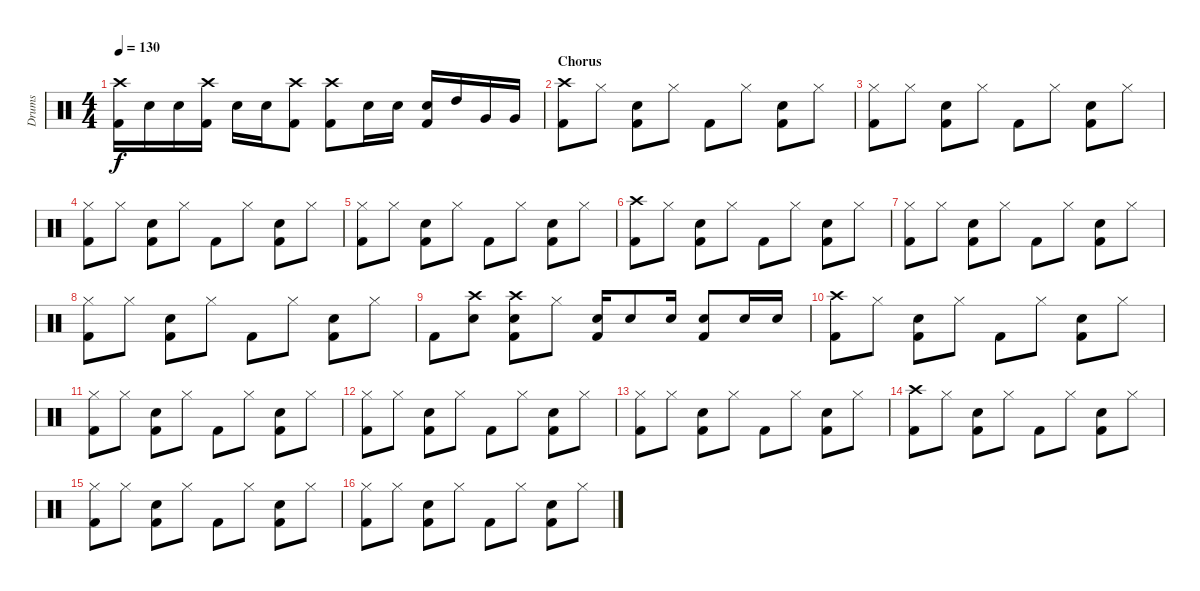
\track ("Drums" "Drums") {instrument percussion}
\staff {score}
\articulation defaults
\ts (4 4)
\tempo 130
\clef neutral
\ks c
("Crash high (hit)" "Kick (hit) 2").16{dy f} "Snare (hit) 2".16 "Snare (hit) 2".16 ("Crash high (hit)" "Kick (hit) 2").16 "Snare (hit) 2".16 "Snare (hit) 2".16 ("Crash high (hit)" "Kick (hit) 2").8 ("Crash high (hit)" "Kick (hit) 2").8 "Snare (hit) 2".16 "Snare (hit) 2".16 ("Snare (hit) 2" "Kick (hit) 2").16 "High Tom (hit)".16 "Very Low Tom (hit)".16 "Very Low Tom (hit)".16 |
\section ("" "Chorus")
("Crash high (hit)" "Kick (hit) 2").8 "Hi-Hat (closed)".8 ("Snare (hit) 2" "Kick (hit) 2").8 "Hi-Hat (closed)".8 "Kick (hit) 2".8 "Hi-Hat (closed)".8 ("Snare (hit) 2" "Kick (hit) 2").8 "Hi-Hat (closed)".8 |
("Hi-Hat (closed)" "Kick (hit) 2").8 "Hi-Hat (closed)".8 ("Snare (hit) 2" "Kick (hit) 2").8 "Hi-Hat (closed)".8 "Kick (hit) 2".8 "Hi-Hat (closed)".8 ("Snare (hit) 2" "Kick (hit) 2").8 "Hi-Hat (closed)".8 |
("Hi-Hat (closed)" "Kick (hit) 2").8 "Hi-Hat (closed)".8 ("Snare (hit) 2" "Kick (hit) 2").8 "Hi-Hat (closed)".8 "Kick (hit) 2".8 "Hi-Hat (closed)".8 ("Snare (hit) 2" "Kick (hit) 2").8 "Hi-Hat (closed)".8 |
("Hi-Hat (closed)" "Kick (hit) 2").8 "Hi-Hat (closed)".8 ("Snare (hit) 2" "Kick (hit) 2").8 "Hi-Hat (closed)".8 "Kick (hit) 2".8 "Hi-Hat (closed)".8 ("Snare (hit) 2" "Kick (hit) 2").8 "Hi-Hat (closed)".8 |
("Crash high (hit)" "Kick (hit) 2").8 "Hi-Hat (closed)".8 ("Snare (hit) 2" "Kick (hit) 2").8 "Hi-Hat (closed)".8 "Kick (hit) 2".8 "Hi-Hat (closed)".8 ("Snare (hit) 2" "Kick (hit) 2").8 "Hi-Hat (closed)".8 |
("Hi-Hat (closed)" "Kick (hit) 2").8 "Hi-Hat (closed)".8 ("Snare (hit) 2" "Kick (hit) 2").8 "Hi-Hat (closed)".8 "Kick (hit) 2".8 "Hi-Hat (closed)".8 ("Snare (hit) 2" "Kick (hit) 2").8 "Hi-Hat (closed)".8 |
("Hi-Hat (closed)" "Kick (hit) 2").8 "Hi-Hat (closed)".8 ("Snare (hit) 2" "Kick (hit) 2").8 "Hi-Hat (closed)".8 "Kick (hit) 2".8 "Hi-Hat (closed)".8 ("Snare (hit) 2" "Kick (hit) 2").8 "Hi-Hat (closed)".8 |
"Kick (hit) 2".8 ("Crash high (hit)" "Snare (hit) 2").8 ("Crash high (hit)" "Snare (hit) 2" "Kick (hit) 2").8 "Hi-Hat (closed)".8 ("Snare (hit) 2" "Kick (hit) 2").16 "Snare (hit) 2".8 "Snare (hit) 2".16 ("Snare (hit) 2" "Kick (hit) 2").8 "Snare (hit) 2".16 "Snare (hit) 2".16 |
("Crash high (hit)" "Kick (hit) 2").8 "Hi-Hat (closed)".8 ("Snare (hit) 2" "Kick (hit) 2").8 "Hi-Hat (closed)".8 "Kick (hit) 2".8 "Hi-Hat (closed)".8 ("Snare (hit) 2" "Kick (hit) 2").8 "Hi-Hat (closed)".8 |
("Hi-Hat (closed)" "Kick (hit) 2").8 "Hi-Hat (closed)".8 ("Snare (hit) 2" "Kick (hit) 2").8 "Hi-Hat (closed)".8 "Kick (hit) 2".8 "Hi-Hat (closed)".8 ("Snare (hit) 2" "Kick (hit) 2").8 "Hi-Hat (closed)".8 |
("Hi-Hat (closed)" "Kick (hit) 2").8 "Hi-Hat (closed)".8 ("Snare (hit) 2" "Kick (hit) 2").8 "Hi-Hat (closed)".8 "Kick (hit) 2".8 "Hi-Hat (closed)".8 ("Snare (hit) 2" "Kick (hit) 2").8 "Hi-Hat (closed)".8 |
("Hi-Hat (closed)" "Kick (hit) 2").8 "Hi-Hat (closed)".8 ("Snare (hit) 2" "Kick (hit) 2").8 "Hi-Hat (closed)".8 "Kick (hit) 2".8 "Hi-Hat (closed)".8 ("Snare (hit) 2" "Kick (hit) 2").8 "Hi-Hat (closed)".8 |
("Crash high (hit)" "Kick (hit) 2").8 "Hi-Hat (closed)".8 ("Snare (hit) 2" "Kick (hit) 2").8 "Hi-Hat (closed)".8 "Kick (hit) 2".8 "Hi-Hat (closed)".8 ("Snare (hit) 2" "Kick (hit) 2").8 "Hi-Hat (closed)".8 |
("Hi-Hat (closed)" "Kick (hit) 2").8 "Hi-Hat (closed)".8 ("Snare (hit) 2" "Kick (hit) 2").8 "Hi-Hat (closed)".8 "Kick (hit) 2".8 "Hi-Hat (closed)".8 ("Snare (hit) 2" "Kick (hit) 2").8 "Hi-Hat (closed)".8 |
("Hi-Hat (closed)" "Kick (hit) 2").8 "Hi-Hat (closed)".8 ("Snare (hit) 2" "Kick (hit) 2").8 "Hi-Hat (closed)".8 "Kick (hit) 2".8 "Hi-Hat (closed)".8 ("Snare (hit) 2" "Kick (hit) 2").8 "Hi-Hat (closed)".8
